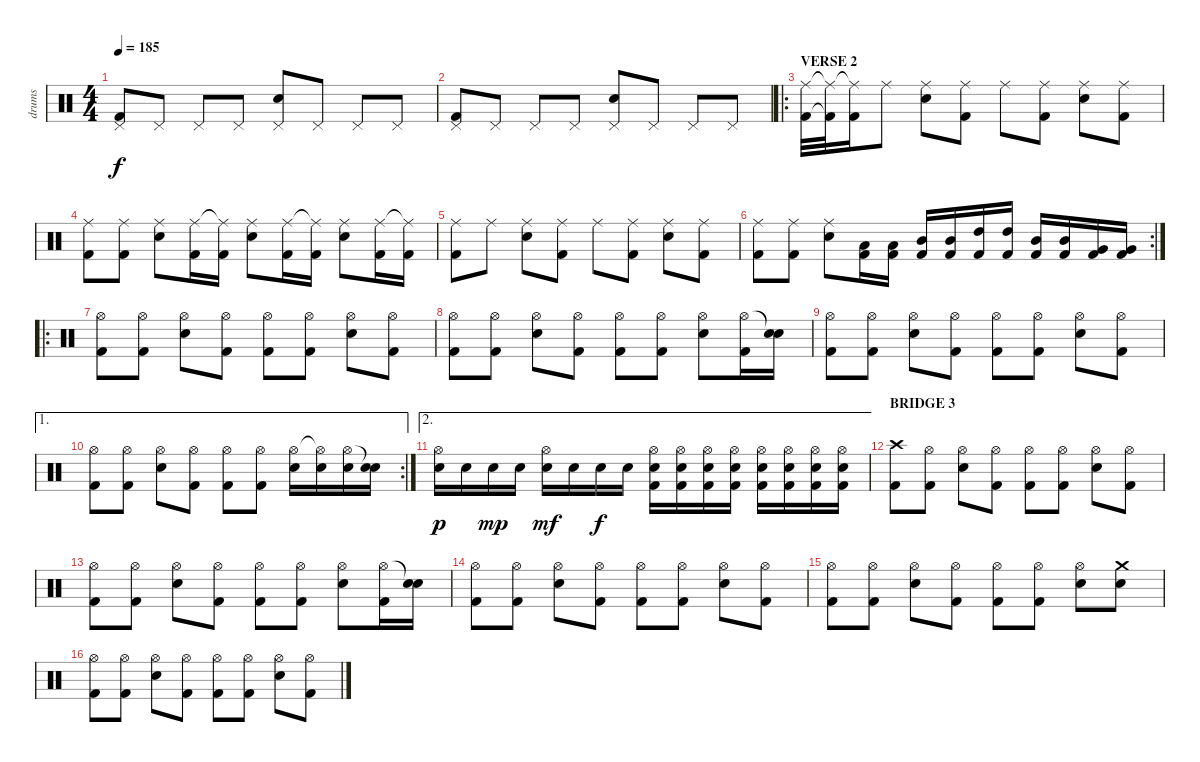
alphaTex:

\track ("drums" "drums") {instrument percussion}
\staff {score}
\articulation defaults
\ts (4 4)
\tempo 185
\clef neutral
\ks c
("Pedal Hi-Hat (hit)" "Kick (hit) 2").8{dy f} "Pedal Hi-Hat (hit)".8 "Pedal Hi-Hat (hit)".8 "Pedal Hi-Hat (hit)".8 ("Pedal Hi-Hat (hit)" "Electric Snare (hit)").8 "Pedal Hi-Hat (hit)".8 "Pedal Hi-Hat (hit)".8 "Pedal Hi-Hat (hit)".8 |
("Pedal Hi-Hat (hit)" "Kick (hit) 2").8 "Pedal Hi-Hat (hit)".8 "Pedal Hi-Hat (hit)".8 "Pedal Hi-Hat (hit)".8 ("Pedal Hi-Hat (hit)" "Electric Snare (hit)").8 "Pedal Hi-Hat (hit)".8 "Pedal Hi-Hat (hit)".8 "Pedal Hi-Hat (hit)".8 |
\ro
\section ("" "VERSE 2")
("Ride (middle)" "Kick (hit) 2").32 ("Ride (middle)"{t} "Kick (hit) 2"{t}).32 ("Ride (middle)"{t} "Kick (hit) 2").16 "Ride (middle)".8 ("Ride (middle)" "Electric Snare (hit)").8 ("Ride (middle)" "Kick (hit) 2").8 "Ride (middle)".8 ("Ride (middle)" "Kick (hit) 2").8 ("Ride (middle)" "Electric Snare (hit)").8 ("Ride (middle)" "Kick (hit) 2").8 |
("Ride (middle)" "Kick (hit) 2").8 ("Ride (middle)" "Kick (hit) 2").8 ("Ride (middle)" "Electric Snare (hit)").8 ("Ride (middle)" "Kick (hit) 2").16 ("Ride (middle)"{t} "Kick (hit) 2").16 ("Ride (middle)" "Electric Snare (hit)").8 ("Ride (middle)" "Kick (hit) 2").16 ("Ride (middle)"{t} "Kick (hit) 2").16 ("Ride (middle)" "Electric Snare (hit)").8 ("Ride (middle)" "Kick (hit) 2").16 ("Ride (middle)"{t} "Kick (hit) 2").16 |
("Ride (middle)" "Kick (hit) 2").8 "Ride (middle)".8 ("Ride (middle)" "Electric Snare (hit)").8 ("Ride (middle)" "Kick (hit) 2").8 "Ride (middle)".8 ("Ride (middle)" "Kick (hit) 2").8 ("Ride (middle)" "Electric Snare (hit)").8 ("Ride (middle)" "Kick (hit) 2").8 |
\rc 2
("Ride (middle)" "Kick (hit) 2").8 ("Ride (middle)" "Kick (hit) 2").8 ("Ride (middle)" "Electric Snare (hit)").8 ("Low Tom (hit)" "Kick (hit) 2").16 ("Low Tom (hit)" "Kick (hit) 2").16 ("Mid Tom (hit)" "Kick (hit) 2").16 ("Mid Tom (hit)" "Kick (hit) 2").16 ("High Tom (hit)" "Kick (hit) 2").16 ("High Tom (hit)" "Kick (hit) 2").16 ("Mid Tom (hit)" "Kick (hit) 2").16 ("Mid Tom (hit)" "Kick (hit) 2").16 ("Very Low Tom (hit)" "Kick (hit) 2").16 ("Very Low Tom (hit)" "Kick (hit) 2").16 |
\ro
("Hi-Hat (open)" "Kick (hit) 2").8 ("Hi-Hat (open)" "Kick (hit) 2").8 ("Hi-Hat (open)" "Electric Snare (hit)").8 ("Hi-Hat (open)" "Kick (hit) 2").8 ("Hi-Hat (open)" "Kick (hit) 2").8 ("Hi-Hat (open)" "Kick (hit) 2").8 ("Hi-Hat (open)" "Electric Snare (hit)").8 ("Hi-Hat (open)" "Kick (hit) 2").8 |
("Hi-Hat (open)" "Kick (hit) 2").8 ("Hi-Hat (open)" "Kick (hit) 2").8 ("Hi-Hat (open)" "Electric Snare (hit)").8 ("Hi-Hat (open)" "Kick (hit) 2").8 ("Hi-Hat (open)" "Kick (hit) 2").8 ("Hi-Hat (open)" "Kick (hit) 2").8 ("Hi-Hat (open)" "Electric Snare (hit)").8 ("Hi-Hat (open)" "Kick (hit) 2").16 ("Snare (hit)"{t} "Electric Snare (hit)").16 |
("Hi-Hat (open)" "Kick (hit) 2").8 ("Hi-Hat (open)" "Kick (hit) 2").8 ("Hi-Hat (open)" "Electric Snare (hit)").8 ("Hi-Hat (open)" "Kick (hit) 2").8 ("Hi-Hat (open)" "Kick (hit) 2").8 ("Hi-Hat (open)" "Kick (hit) 2").8 ("Hi-Hat (open)" "Electric Snare (hit)").8 ("Hi-Hat (open)" "Kick (hit) 2").8 |
\ae 1
\rc 2
("Hi-Hat (open)" "Kick (hit) 2").8 ("Hi-Hat (open)" "Kick (hit) 2").8 ("Hi-Hat (open)" "Electric Snare (hit)").8 ("Hi-Hat (open)" "Kick (hit) 2").8 ("Hi-Hat (open)" "Kick (hit) 2").8 ("Hi-Hat (open)" "Kick (hit) 2").8 ("Hi-Hat (open)" "Electric Snare (hit)").16 ("Hi-Hat (open)"{t} "Electric Snare (hit)").16 ("Hi-Hat (open)" "Electric Snare (hit)").16 ("Snare (hit)"{t} "Electric Snare (hit)").16 |
\ae 2
("Hi-Hat (open)" "Electric Snare (hit)").16{dy p} "Electric Snare (hit)".16 "Electric Snare (hit)".16{dy mp} "Electric Snare (hit)".16 ("Hi-Hat (open)" "Electric Snare (hit)").16{dy mf} "Electric Snare (hit)".16 "Electric Snare (hit)".16{dy f} "Electric Snare (hit)".16 ("Hi-Hat (open)" "Kick (hit) 2" "Electric Snare (hit)").16 ("Hi-Hat (open)" "Kick (hit) 2" "Electric Snare (hit)").16 ("Hi-Hat (open)" "Kick (hit) 2" "Electric Snare (hit)").16 ("Hi-Hat (open)" "Kick (hit) 2" "Electric Snare (hit)").16 ("Hi-Hat (open)" "Kick (hit) 2" "Electric Snare (hit)").16 ("Hi-Hat (open)" "Kick (hit) 2" "Electric Snare (hit)").16 ("Hi-Hat (open)" "Kick (hit) 2" "Electric Snare (hit)").16 ("Hi-Hat (open)" "Kick (hit) 2" "Electric Snare (hit)").16 |
\section ("" "BRIDGE 3")
("Crash high (hit)" "Kick (hit) 2").8 ("Hi-Hat (open)" "Kick (hit) 2").8 ("Hi-Hat (open)" "Electric Snare (hit)").8 ("Hi-Hat (open)" "Kick (hit) 2").8 ("Hi-Hat (open)" "Kick (hit) 2").8 ("Hi-Hat (open)" "Kick (hit) 2").8 ("Hi-Hat (open)" "Electric Snare (hit)").8 ("Hi-Hat (open)" "Kick (hit) 2").8 |
("Hi-Hat (open)" "Kick (hit) 2").8 ("Hi-Hat (open)" "Kick (hit) 2").8 ("Hi-Hat (open)" "Electric Snare (hit)").8 ("Hi-Hat (open)" "Kick (hit) 2").8 ("Hi-Hat (open)" "Kick (hit) 2").8 ("Hi-Hat (open)" "Kick (hit) 2").8 ("Hi-Hat (open)" "Electric Snare (hit)").8 ("Hi-Hat (open)" "Kick (hit) 2").16 ("Snare (hit)"{t} "Electric Snare (hit)").16 |
("Hi-Hat (open)" "Kick (hit) 2").8 ("Hi-Hat (open)" "Kick (hit) 2").8 ("Hi-Hat (open)" "Electric Snare (hit)").8 ("Hi-Hat (open)" "Kick (hit) 2").8 ("Hi-Hat (open)" "Kick (hit) 2").8 ("Hi-Hat (open)" "Kick (hit) 2").8 ("Hi-Hat (open)" "Electric Snare (hit)").8 ("Hi-Hat (open)" "Kick (hit) 2").8 |
("Hi-Hat (open)" "Kick (hit) 2").8 ("Hi-Hat (open)" "Kick (hit) 2").8 ("Hi-Hat (open)" "Electric Snare (hit)").8 ("Hi-Hat (open)" "Kick (hit) 2").8 ("Hi-Hat (open)" "Kick (hit) 2").8 ("Hi-Hat (open)" "Kick (hit) 2").8 ("Hi-Hat (open)" "Electric Snare (hit)").8 ("Crash medium (hit)" "Electric Snare (hit)").8 |
("Hi-Hat (open)" "Kick (hit) 2").8 ("Hi-Hat (open)" "Kick (hit) 2").8 ("Hi-Hat (open)" "Electric Snare (hit)").8 ("Hi-Hat (open)" "Kick (hit) 2").8 ("Hi-Hat (open)" "Kick (hit) 2").8 ("Hi-Hat (open)" "Kick (hit) 2").8 ("Hi-Hat (open)" "Electric Snare (hit)").8 ("Hi-Hat (open)" "Kick (hit) 2").8
